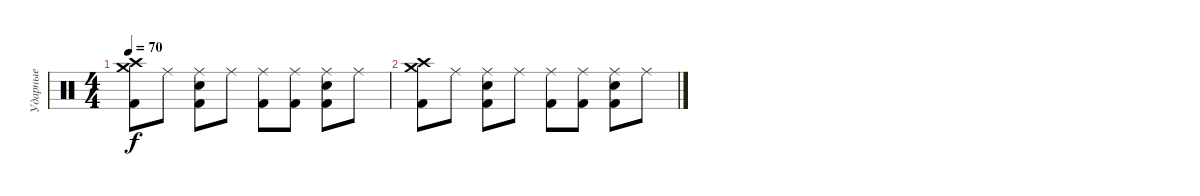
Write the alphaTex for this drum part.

\track ("Ударные" "Ударные") {instrument percussion}
\staff {score}
\articulation defaults
\ts (4 4)
\tempo 70
\clef neutral
\ks c
("Kick (hit) 2" "Crash medium (hit)" "Crash high (hit)").8{dy f} "Ride (middle)".8 ("Kick (hit) 2" "Snare (hit) 2" "Ride (middle)").8 "Ride (middle)".8 ("Kick (hit) 2" "Ride (middle)").8 ("Kick (hit) 2" "Ride (middle)").8 ("Kick (hit) 2" "Snare (hit) 2" "Ride (middle)").8 "Ride (middle)".8 |
("Kick (hit) 2" "Crash medium (hit)" "Crash high (hit)").8 "Ride (middle)".8 ("Kick (hit) 2" "Snare (hit) 2" "Ride (middle)").8 "Ride (middle)".8 ("Kick (hit) 2" "Ride (middle)").8 ("Kick (hit) 2" "Ride (middle)").8 ("Kick (hit) 2" "Snare (hit) 2" "Ride (middle)").8 "Ride (middle)".8
